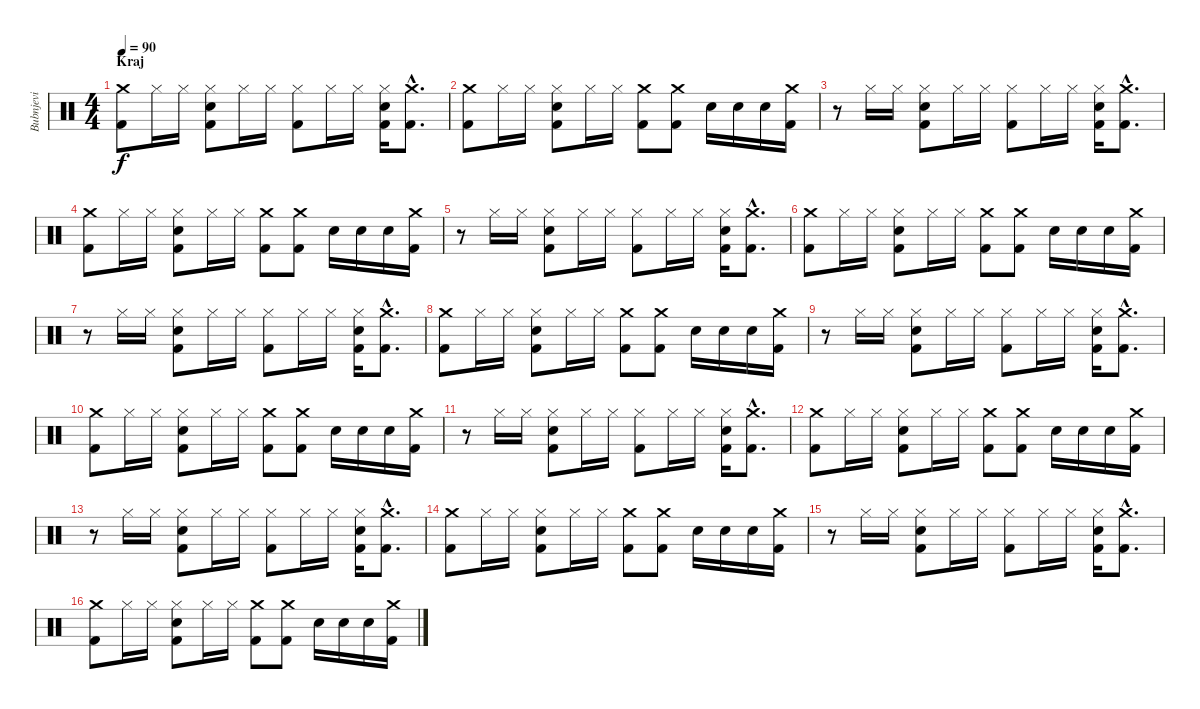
\track ("Bubnjevi" "Bubnjevi") {instrument percussion}
\staff {score}
\articulation defaults
\ts (4 4)
\section ("" "Kraj")
\tempo 90
\clef neutral
\ks c
("Crash medium (hit)" "Kick (hit) 2").8{dy f} "Hi-Hat (closed)".16 "Hi-Hat (closed)".16 ("Snare (hit) 2" "Hi-Hat (closed)" "Kick (hit) 2").8 "Hi-Hat (closed)".16 "Hi-Hat (closed)".16 ("Hi-Hat (closed)" "Kick (hit) 2").8 "Hi-Hat (closed)".16 "Hi-Hat (closed)".16 ("Snare (hit) 2" "Hi-Hat (closed)" "Kick (hit) 2").16 ("Crash medium (hit)"{hac} "Kick (hit) 2"{hac}).8{d} |
("Crash medium (hit)" "Kick (hit) 2").8 "Hi-Hat (closed)".16 "Hi-Hat (closed)".16 ("Snare (hit) 2" "Hi-Hat (closed)" "Kick (hit) 2").8 "Hi-Hat (closed)".16 "Hi-Hat (closed)".16 ("Crash medium (hit)" "Kick (hit) 2").8 ("Crash medium (hit)" "Kick (hit) 2").8 "Snare (hit) 2".16 "Snare (hit) 2".16 "Snare (hit) 2".16 ("Crash medium (hit)" "Kick (hit) 2").16 |
r.8 "Hi-Hat (closed)".16 "Hi-Hat (closed)".16 ("Snare (hit) 2" "Hi-Hat (closed)" "Kick (hit) 2").8 "Hi-Hat (closed)".16 "Hi-Hat (closed)".16 ("Hi-Hat (closed)" "Kick (hit) 2").8 "Hi-Hat (closed)".16 "Hi-Hat (closed)".16 ("Snare (hit) 2" "Hi-Hat (closed)" "Kick (hit) 2").16 ("Crash medium (hit)"{hac} "Kick (hit) 2"{hac}).8{d} |
("Crash medium (hit)" "Kick (hit) 2").8 "Hi-Hat (closed)".16 "Hi-Hat (closed)".16 ("Snare (hit) 2" "Hi-Hat (closed)" "Kick (hit) 2").8 "Hi-Hat (closed)".16 "Hi-Hat (closed)".16 ("Crash medium (hit)" "Kick (hit) 2").8 ("Crash medium (hit)" "Kick (hit) 2").8 "Snare (hit) 2".16 "Snare (hit) 2".16 "Snare (hit) 2".16 ("Crash medium (hit)" "Kick (hit) 2").16 |
r.8 "Hi-Hat (closed)".16 "Hi-Hat (closed)".16 ("Snare (hit) 2" "Hi-Hat (closed)" "Kick (hit) 2").8 "Hi-Hat (closed)".16 "Hi-Hat (closed)".16 ("Hi-Hat (closed)" "Kick (hit) 2").8 "Hi-Hat (closed)".16 "Hi-Hat (closed)".16 ("Snare (hit) 2" "Hi-Hat (closed)" "Kick (hit) 2").16 ("Crash medium (hit)"{hac} "Kick (hit) 2"{hac}).8{d} |
("Crash medium (hit)" "Kick (hit) 2").8 "Hi-Hat (closed)".16 "Hi-Hat (closed)".16 ("Snare (hit) 2" "Hi-Hat (closed)" "Kick (hit) 2").8 "Hi-Hat (closed)".16 "Hi-Hat (closed)".16 ("Crash medium (hit)" "Kick (hit) 2").8 ("Crash medium (hit)" "Kick (hit) 2").8 "Snare (hit) 2".16 "Snare (hit) 2".16 "Snare (hit) 2".16 ("Crash medium (hit)" "Kick (hit) 2").16 |
r.8 "Hi-Hat (closed)".16 "Hi-Hat (closed)".16 ("Snare (hit) 2" "Hi-Hat (closed)" "Kick (hit) 2").8 "Hi-Hat (closed)".16 "Hi-Hat (closed)".16 ("Hi-Hat (closed)" "Kick (hit) 2").8 "Hi-Hat (closed)".16 "Hi-Hat (closed)".16 ("Snare (hit) 2" "Hi-Hat (closed)" "Kick (hit) 2").16 ("Crash medium (hit)"{hac} "Kick (hit) 2"{hac}).8{d} |
("Crash medium (hit)" "Kick (hit) 2").8 "Hi-Hat (closed)".16 "Hi-Hat (closed)".16 ("Snare (hit) 2" "Hi-Hat (closed)" "Kick (hit) 2").8 "Hi-Hat (closed)".16 "Hi-Hat (closed)".16 ("Crash medium (hit)" "Kick (hit) 2").8 ("Crash medium (hit)" "Kick (hit) 2").8 "Snare (hit) 2".16 "Snare (hit) 2".16 "Snare (hit) 2".16 ("Crash medium (hit)" "Kick (hit) 2").16 |
r.8 "Hi-Hat (closed)".16 "Hi-Hat (closed)".16 ("Snare (hit) 2" "Hi-Hat (closed)" "Kick (hit) 2").8 "Hi-Hat (closed)".16 "Hi-Hat (closed)".16 ("Hi-Hat (closed)" "Kick (hit) 2").8 "Hi-Hat (closed)".16 "Hi-Hat (closed)".16 ("Snare (hit) 2" "Hi-Hat (closed)" "Kick (hit) 2").16 ("Crash medium (hit)"{hac} "Kick (hit) 2"{hac}).8{d} |
("Crash medium (hit)" "Kick (hit) 2").8 "Hi-Hat (closed)".16 "Hi-Hat (closed)".16 ("Snare (hit) 2" "Hi-Hat (closed)" "Kick (hit) 2").8 "Hi-Hat (closed)".16 "Hi-Hat (closed)".16 ("Crash medium (hit)" "Kick (hit) 2").8 ("Crash medium (hit)" "Kick (hit) 2").8 "Snare (hit) 2".16 "Snare (hit) 2".16 "Snare (hit) 2".16 ("Crash medium (hit)" "Kick (hit) 2").16 |
r.8 "Hi-Hat (closed)".16 "Hi-Hat (closed)".16 ("Snare (hit) 2" "Hi-Hat (closed)" "Kick (hit) 2").8 "Hi-Hat (closed)".16 "Hi-Hat (closed)".16 ("Hi-Hat (closed)" "Kick (hit) 2").8 "Hi-Hat (closed)".16 "Hi-Hat (closed)".16 ("Snare (hit) 2" "Hi-Hat (closed)" "Kick (hit) 2").16 ("Crash medium (hit)"{hac} "Kick (hit) 2"{hac}).8{d} |
("Crash medium (hit)" "Kick (hit) 2").8 "Hi-Hat (closed)".16 "Hi-Hat (closed)".16 ("Snare (hit) 2" "Hi-Hat (closed)" "Kick (hit) 2").8 "Hi-Hat (closed)".16 "Hi-Hat (closed)".16 ("Crash medium (hit)" "Kick (hit) 2").8 ("Crash medium (hit)" "Kick (hit) 2").8 "Snare (hit) 2".16 "Snare (hit) 2".16 "Snare (hit) 2".16 ("Crash medium (hit)" "Kick (hit) 2").16 |
r.8 "Hi-Hat (closed)".16 "Hi-Hat (closed)".16 ("Snare (hit) 2" "Hi-Hat (closed)" "Kick (hit) 2").8 "Hi-Hat (closed)".16 "Hi-Hat (closed)".16 ("Hi-Hat (closed)" "Kick (hit) 2").8 "Hi-Hat (closed)".16 "Hi-Hat (closed)".16 ("Snare (hit) 2" "Hi-Hat (closed)" "Kick (hit) 2").16 ("Crash medium (hit)"{hac} "Kick (hit) 2"{hac}).8{d} |
("Crash medium (hit)" "Kick (hit) 2").8 "Hi-Hat (closed)".16 "Hi-Hat (closed)".16 ("Snare (hit) 2" "Hi-Hat (closed)" "Kick (hit) 2").8 "Hi-Hat (closed)".16 "Hi-Hat (closed)".16 ("Crash medium (hit)" "Kick (hit) 2").8 ("Crash medium (hit)" "Kick (hit) 2").8 "Snare (hit) 2".16 "Snare (hit) 2".16 "Snare (hit) 2".16 ("Crash medium (hit)" "Kick (hit) 2").16 |
r.8 "Hi-Hat (closed)".16 "Hi-Hat (closed)".16 ("Snare (hit) 2" "Hi-Hat (closed)" "Kick (hit) 2").8 "Hi-Hat (closed)".16 "Hi-Hat (closed)".16 ("Hi-Hat (closed)" "Kick (hit) 2").8 "Hi-Hat (closed)".16 "Hi-Hat (closed)".16 ("Snare (hit) 2" "Hi-Hat (closed)" "Kick (hit) 2").16 ("Crash medium (hit)"{hac} "Kick (hit) 2"{hac}).8{d} |
("Crash medium (hit)" "Kick (hit) 2").8 "Hi-Hat (closed)".16 "Hi-Hat (closed)".16 ("Snare (hit) 2" "Hi-Hat (closed)" "Kick (hit) 2").8 "Hi-Hat (closed)".16 "Hi-Hat (closed)".16 ("Crash medium (hit)" "Kick (hit) 2").8 ("Crash medium (hit)" "Kick (hit) 2").8 "Snare (hit) 2".16 "Snare (hit) 2".16 "Snare (hit) 2".16 ("Crash medium (hit)" "Kick (hit) 2").16
